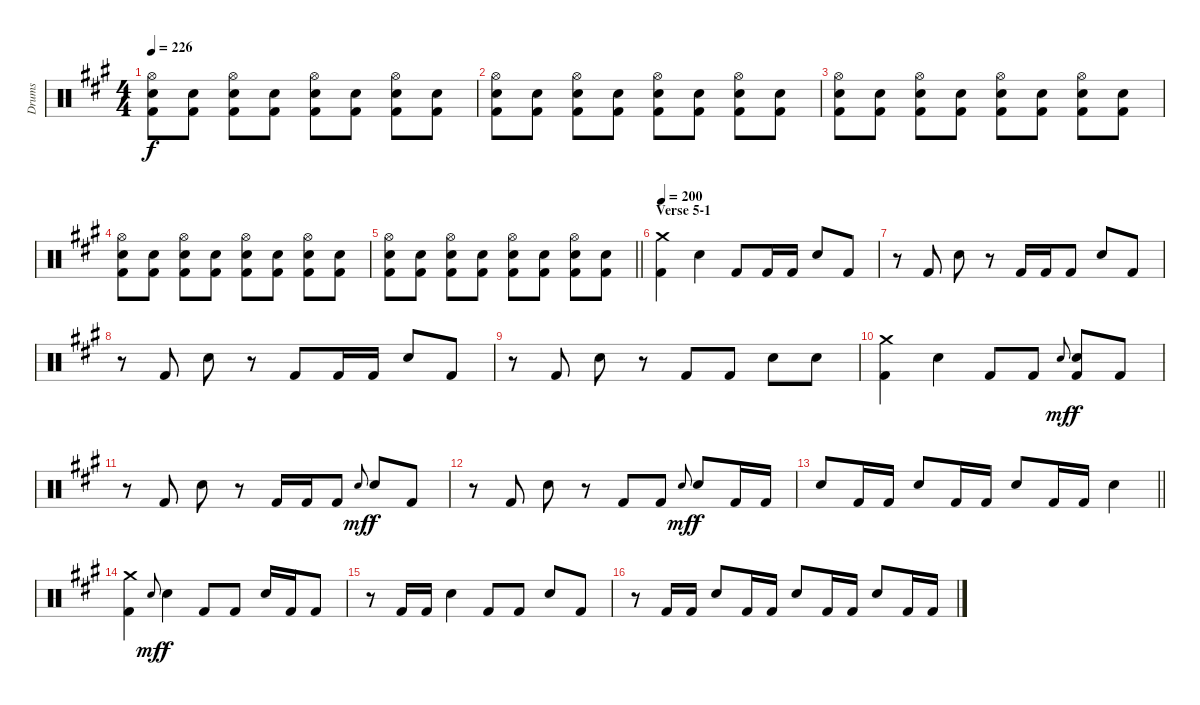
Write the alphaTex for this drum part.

\track ("Drums" "Drums") {instrument percussion}
\staff {score}
\articulation defaults
\ts (4 4)
\tempo 226
\clef neutral
\ks a
("Hi-Hat (open)" "Snare (hit) 2" "Kick (hit) 2").8{dy f} ("Snare (hit) 2" "Kick (hit) 2").8 ("Hi-Hat (open)" "Snare (hit) 2" "Kick (hit) 2").8 ("Snare (hit) 2" "Kick (hit) 2").8 ("Hi-Hat (open)" "Snare (hit) 2" "Kick (hit) 2").8 ("Snare (hit) 2" "Kick (hit) 2").8 ("Hi-Hat (open)" "Snare (hit) 2" "Kick (hit) 2").8 ("Snare (hit) 2" "Kick (hit) 2").8 |
("Hi-Hat (open)" "Snare (hit) 2" "Kick (hit) 2").8 ("Snare (hit) 2" "Kick (hit) 2").8 ("Hi-Hat (open)" "Snare (hit) 2" "Kick (hit) 2").8 ("Snare (hit) 2" "Kick (hit) 2").8 ("Hi-Hat (open)" "Snare (hit) 2" "Kick (hit) 2").8 ("Snare (hit) 2" "Kick (hit) 2").8 ("Hi-Hat (open)" "Snare (hit) 2" "Kick (hit) 2").8 ("Snare (hit) 2" "Kick (hit) 2").8 |
("Hi-Hat (open)" "Snare (hit) 2" "Kick (hit) 2").8 ("Snare (hit) 2" "Kick (hit) 2").8 ("Hi-Hat (open)" "Snare (hit) 2" "Kick (hit) 2").8 ("Snare (hit) 2" "Kick (hit) 2").8 ("Hi-Hat (open)" "Snare (hit) 2" "Kick (hit) 2").8 ("Snare (hit) 2" "Kick (hit) 2").8 ("Hi-Hat (open)" "Snare (hit) 2" "Kick (hit) 2").8 ("Snare (hit) 2" "Kick (hit) 2").8 |
("Hi-Hat (open)" "Snare (hit) 2" "Kick (hit) 2").8 ("Snare (hit) 2" "Kick (hit) 2").8 ("Hi-Hat (open)" "Snare (hit) 2" "Kick (hit) 2").8 ("Snare (hit) 2" "Kick (hit) 2").8 ("Hi-Hat (open)" "Snare (hit) 2" "Kick (hit) 2").8 ("Snare (hit) 2" "Kick (hit) 2").8 ("Hi-Hat (open)" "Snare (hit) 2" "Kick (hit) 2").8 ("Snare (hit) 2" "Kick (hit) 2").8 |
\barLineRight lightlight
("Hi-Hat (open)" "Snare (hit) 2" "Kick (hit) 2").8 ("Snare (hit) 2" "Kick (hit) 2").8 ("Hi-Hat (open)" "Snare (hit) 2" "Kick (hit) 2").8 ("Snare (hit) 2" "Kick (hit) 2").8 ("Hi-Hat (open)" "Snare (hit) 2" "Kick (hit) 2").8 ("Snare (hit) 2" "Kick (hit) 2").8 ("Hi-Hat (open)" "Snare (hit) 2" "Kick (hit) 2").8 ("Snare (hit) 2" "Kick (hit) 2").8 |
\section ("" "Verse 5-1")
\tempo 200
("Crash medium (hit)" "Kick (hit) 2").4 "Snare (hit) 2".4 "Kick (hit) 2".8 "Kick (hit) 2".16 "Kick (hit) 2".16 "Snare (hit) 2".8 "Kick (hit) 2".8 |
r.8 "Kick (hit) 2".8 "Snare (hit) 2".8 r.8 "Kick (hit) 2".16 "Kick (hit) 2".16 "Kick (hit) 2".8 "Snare (hit) 2".8 "Kick (hit) 2".8 |
r.8 "Kick (hit) 2".8 "Snare (hit) 2".8 r.8 "Kick (hit) 2".8 "Kick (hit) 2".16 "Kick (hit) 2".16 "Snare (hit) 2".8 "Kick (hit) 2".8 |
r.8 "Kick (hit) 2".8 "Snare (hit) 2".8 r.8 "Kick (hit) 2".8 "Kick (hit) 2".8 "Snare (hit) 2".8 "Snare (hit) 2".8 |
("Crash medium (hit)" "Kick (hit) 2").4 "Snare (hit) 2".4 "Kick (hit) 2".8 "Kick (hit) 2".8 "Snare (hit)".8{gr onbeat dy mf} ("Snare (hit) 2" "Kick (hit) 2").8{dy f} "Kick (hit) 2".8 |
r.8 "Kick (hit) 2".8 "Snare (hit) 2".8 r.8 "Kick (hit) 2".16 "Kick (hit) 2".16 "Kick (hit) 2".8 "Snare (hit)".8{gr onbeat dy mf} "Snare (hit) 2".8{dy f} "Kick (hit) 2".8 |
r.8 "Kick (hit) 2".8 "Snare (hit) 2".8 r.8 "Kick (hit) 2".8 "Kick (hit) 2".8 "Snare (hit)".8{gr onbeat dy mf} "Snare (hit) 2".8{dy f} "Kick (hit) 2".16 "Kick (hit) 2".16 |
\barLineRight lightlight "Snare (hit) 2".8 "Kick (hit) 2".16 "Kick (hit) 2".16 "Snare (hit) 2".8 "Kick (hit) 2".16 "Kick (hit) 2".16 "Snare (hit) 2".8 "Kick (hit) 2".16 "Kick (hit) 2".16 "Snare (hit) 2".4
|
("Crash medium (hit)" "Kick (hit) 2").4 "Snare (hit)".8{gr onbeat dy mf} "Snare (hit) 2".4{dy f} "Kick (hit) 2".8 "Kick (hit) 2".8 "Snare (hit) 2".16 "Kick (hit) 2".16 "Kick (hit) 2".8 |
r.8 "Kick (hit) 2".16 "Kick (hit) 2".16 "Snare (hit) 2".4 "Kick (hit) 2".8 "Kick (hit) 2".8 "Snare (hit) 2".8 "Kick (hit) 2".8 |
r.8 "Kick (hit) 2".16 "Kick (hit) 2".16 "Snare (hit) 2".8 "Kick (hit) 2".16 "Kick (hit) 2".16 "Snare (hit) 2".8 "Kick (hit) 2".16 "Kick (hit) 2".16 "Snare (hit) 2".8 "Kick (hit) 2".16 "Kick (hit) 2".16
